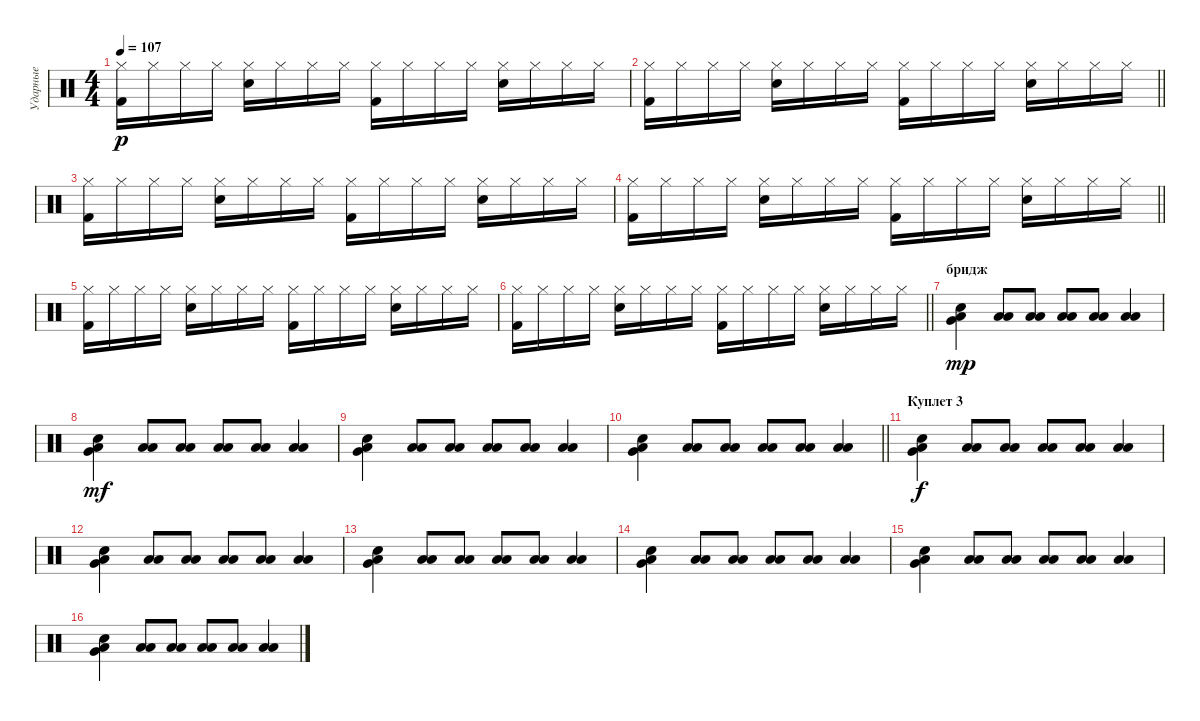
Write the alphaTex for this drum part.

\track ("Ударные" "Ударные") {solo instrument percussion}
\staff {score}
\articulation defaults
\ts (4 4)
\tempo 107
\clef neutral
\ks c
("Kick (hit) 2" "Hi-Hat (closed)").16{dy p} "Hi-Hat (closed)".16 "Hi-Hat (closed)".16 "Hi-Hat (closed)".16 ("Snare (hit) 2" "Hi-Hat (closed)").16 "Hi-Hat (closed)".16 "Hi-Hat (closed)".16 "Hi-Hat (closed)".16 ("Kick (hit) 2" "Hi-Hat (closed)").16 "Hi-Hat (closed)".16 "Hi-Hat (closed)".16 "Hi-Hat (closed)".16 ("Snare (hit) 2" "Hi-Hat (closed)").16 "Hi-Hat (closed)".16 "Hi-Hat (closed)".16 "Hi-Hat (closed)".16 |
\barLineRight lightlight
("Kick (hit) 2" "Hi-Hat (closed)").16 "Hi-Hat (closed)".16 "Hi-Hat (closed)".16 "Hi-Hat (closed)".16 ("Snare (hit) 2" "Hi-Hat (closed)").16 "Hi-Hat (closed)".16 "Hi-Hat (closed)".16 "Hi-Hat (closed)".16 ("Kick (hit) 2" "Hi-Hat (closed)").16 "Hi-Hat (closed)".16 "Hi-Hat (closed)".16 "Hi-Hat (closed)".16 ("Snare (hit) 2" "Hi-Hat (closed)").16 "Hi-Hat (closed)".16 "Hi-Hat (closed)".16 "Hi-Hat (closed)".16 |
("Kick (hit) 2" "Hi-Hat (closed)").16 "Hi-Hat (closed)".16 "Hi-Hat (closed)".16 "Hi-Hat (closed)".16 ("Snare (hit) 2" "Hi-Hat (closed)").16 "Hi-Hat (closed)".16 "Hi-Hat (closed)".16 "Hi-Hat (closed)".16 ("Kick (hit) 2" "Hi-Hat (closed)").16 "Hi-Hat (closed)".16 "Hi-Hat (closed)".16 "Hi-Hat (closed)".16 ("Snare (hit) 2" "Hi-Hat (closed)").16 "Hi-Hat (closed)".16 "Hi-Hat (closed)".16 "Hi-Hat (closed)".16 |
\barLineRight lightlight
("Kick (hit) 2" "Hi-Hat (closed)").16 "Hi-Hat (closed)".16 "Hi-Hat (closed)".16 "Hi-Hat (closed)".16 ("Snare (hit) 2" "Hi-Hat (closed)").16 "Hi-Hat (closed)".16 "Hi-Hat (closed)".16 "Hi-Hat (closed)".16 ("Kick (hit) 2" "Hi-Hat (closed)").16 "Hi-Hat (closed)".16 "Hi-Hat (closed)".16 "Hi-Hat (closed)".16 ("Snare (hit) 2" "Hi-Hat (closed)").16 "Hi-Hat (closed)".16 "Hi-Hat (closed)".16 "Hi-Hat (closed)".16 |
("Kick (hit) 2" "Hi-Hat (closed)").16 "Hi-Hat (closed)".16 "Hi-Hat (closed)".16 "Hi-Hat (closed)".16 ("Snare (hit) 2" "Hi-Hat (closed)").16 "Hi-Hat (closed)".16 "Hi-Hat (closed)".16 "Hi-Hat (closed)".16 ("Kick (hit) 2" "Hi-Hat (closed)").16 "Hi-Hat (closed)".16 "Hi-Hat (closed)".16 "Hi-Hat (closed)".16 ("Snare (hit) 2" "Hi-Hat (closed)").16 "Hi-Hat (closed)".16 "Hi-Hat (closed)".16 "Hi-Hat (closed)".16 |
\barLineRight lightlight
("Kick (hit) 2" "Hi-Hat (closed)").16 "Hi-Hat (closed)".16 "Hi-Hat (closed)".16 "Hi-Hat (closed)".16 ("Snare (hit) 2" "Hi-Hat (closed)").16 "Hi-Hat (closed)".16 "Hi-Hat (closed)".16 "Hi-Hat (closed)".16 ("Kick (hit) 2" "Hi-Hat (closed)").16 "Hi-Hat (closed)".16 "Hi-Hat (closed)".16 "Hi-Hat (closed)".16 ("Snare (hit) 2" "Hi-Hat (closed)").16 "Hi-Hat (closed)".16 "Hi-Hat (closed)".16 "Hi-Hat (closed)".16 |
\section ("" "бридж")
("Electric Snare (hit)" "Very Low Tom (hit)" "Low Tom (hit)").4{dy mp} ("Low Floor Tom (hit)" "Low Tom (hit)").8 ("Low Floor Tom (hit)" "Low Tom (hit)").8 ("Low Floor Tom (hit)" "Low Tom (hit)").8 ("Low Floor Tom (hit)" "Low Tom (hit)").8 ("Low Floor Tom (hit)" "Low Tom (hit)").4 |
("Electric Snare (hit)" "Very Low Tom (hit)" "Low Tom (hit)").4{dy mf} ("Low Floor Tom (hit)" "Low Tom (hit)").8 ("Low Floor Tom (hit)" "Low Tom (hit)").8 ("Low Floor Tom (hit)" "Low Tom (hit)").8 ("Low Floor Tom (hit)" "Low Tom (hit)").8 ("Low Floor Tom (hit)" "Low Tom (hit)").4 |
("Electric Snare (hit)" "Very Low Tom (hit)" "Low Tom (hit)").4 ("Low Floor Tom (hit)" "Low Tom (hit)").8 ("Low Floor Tom (hit)" "Low Tom (hit)").8 ("Low Floor Tom (hit)" "Low Tom (hit)").8 ("Low Floor Tom (hit)" "Low Tom (hit)").8 ("Low Floor Tom (hit)" "Low Tom (hit)").4 |
\barLineRight lightlight
("Electric Snare (hit)" "Very Low Tom (hit)" "Low Tom (hit)").4 ("Low Floor Tom (hit)" "Low Tom (hit)").8 ("Low Floor Tom (hit)" "Low Tom (hit)").8 ("Low Floor Tom (hit)" "Low Tom (hit)").8 ("Low Floor Tom (hit)" "Low Tom (hit)").8 ("Low Floor Tom (hit)" "Low Tom (hit)").4 |
\section ("" "Куплет 3")
("Electric Snare (hit)" "Very Low Tom (hit)" "Low Tom (hit)").4{dy f} ("Low Floor Tom (hit)" "Low Tom (hit)").8 ("Low Floor Tom (hit)" "Low Tom (hit)").8 ("Low Floor Tom (hit)" "Low Tom (hit)").8 ("Low Floor Tom (hit)" "Low Tom (hit)").8 ("Low Floor Tom (hit)" "Low Tom (hit)").4 |
("Electric Snare (hit)" "Very Low Tom (hit)" "Low Tom (hit)").4 ("Low Floor Tom (hit)" "Low Tom (hit)").8 ("Low Floor Tom (hit)" "Low Tom (hit)").8 ("Low Floor Tom (hit)" "Low Tom (hit)").8 ("Low Floor Tom (hit)" "Low Tom (hit)").8 ("Low Floor Tom (hit)" "Low Tom (hit)").4 |
("Electric Snare (hit)" "Very Low Tom (hit)" "Low Tom (hit)").4 ("Low Floor Tom (hit)" "Low Tom (hit)").8 ("Low Floor Tom (hit)" "Low Tom (hit)").8 ("Low Floor Tom (hit)" "Low Tom (hit)").8 ("Low Floor Tom (hit)" "Low Tom (hit)").8 ("Low Floor Tom (hit)" "Low Tom (hit)").4 |
("Electric Snare (hit)" "Very Low Tom (hit)" "Low Tom (hit)").4 ("Low Floor Tom (hit)" "Low Tom (hit)").8 ("Low Floor Tom (hit)" "Low Tom (hit)").8 ("Low Floor Tom (hit)" "Low Tom (hit)").8 ("Low Floor Tom (hit)" "Low Tom (hit)").8 ("Low Floor Tom (hit)" "Low Tom (hit)").4 |
("Electric Snare (hit)" "Very Low Tom (hit)" "Low Tom (hit)").4 ("Low Floor Tom (hit)" "Low Tom (hit)").8 ("Low Floor Tom (hit)" "Low Tom (hit)").8 ("Low Floor Tom (hit)" "Low Tom (hit)").8 ("Low Floor Tom (hit)" "Low Tom (hit)").8 ("Low Floor Tom (hit)" "Low Tom (hit)").4 |
("Electric Snare (hit)" "Very Low Tom (hit)" "Low Tom (hit)").4 ("Low Floor Tom (hit)" "Low Tom (hit)").8 ("Low Floor Tom (hit)" "Low Tom (hit)").8 ("Low Floor Tom (hit)" "Low Tom (hit)").8 ("Low Floor Tom (hit)" "Low Tom (hit)").8 ("Low Floor Tom (hit)" "Low Tom (hit)").4
